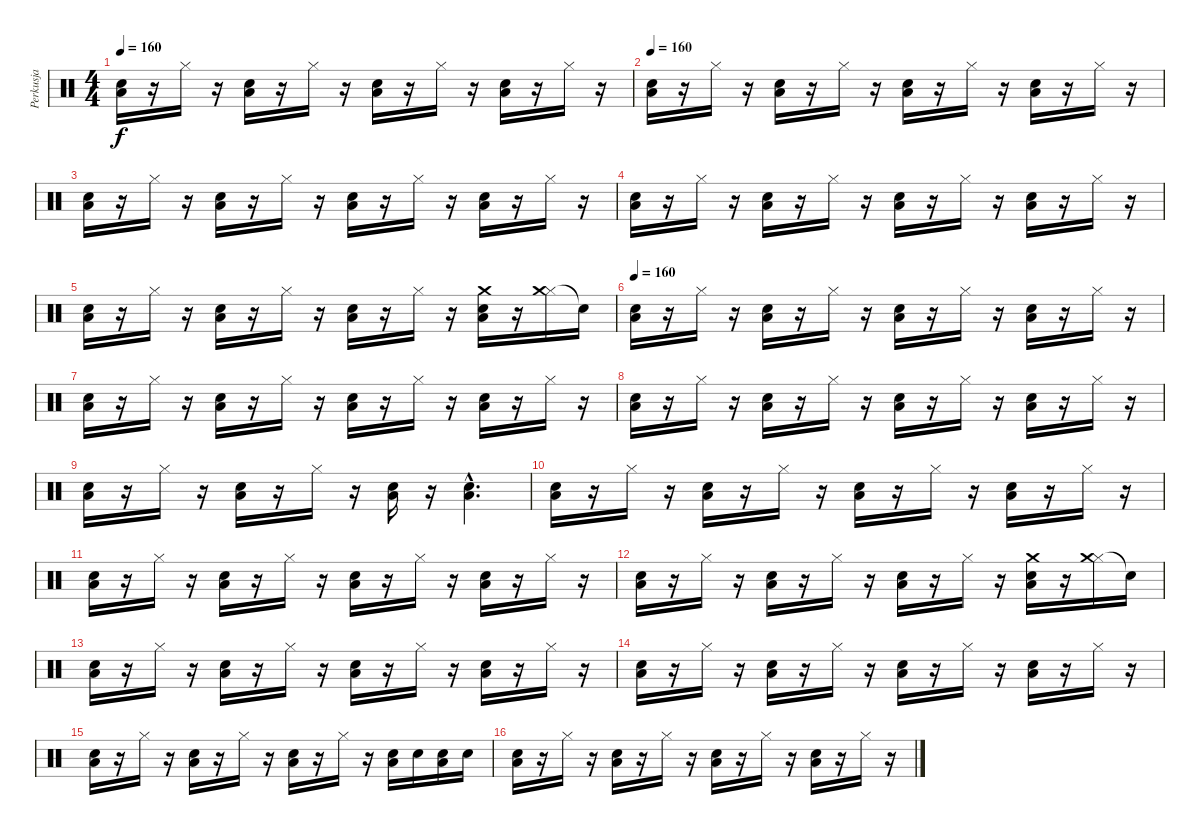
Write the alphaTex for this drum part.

\track ("Perkusja" "Perkusja") {instrument percussion}
\staff {score}
\articulation defaults
\ts (4 4)
\tempo 160
\clef neutral
\ks c
("Snare (hit) 2" "Low Tom (hit)").16{dy f} r.16 "Hi-Hat (closed)".16 r.16 ("Snare (hit) 2" "Low Tom (hit)").16 r.16 "Hi-Hat (closed)".16 r.16 ("Snare (hit) 2" "Low Tom (hit)").16 r.16 "Hi-Hat (closed)".16 r.16 ("Snare (hit) 2" "Low Tom (hit)").16 r.16 "Hi-Hat (closed)".16 r.16 |
\tempo 160
("Snare (hit) 2" "Low Tom (hit)").16 r.16 "Hi-Hat (closed)".16 r.16 ("Snare (hit) 2" "Low Tom (hit)").16 r.16 "Hi-Hat (closed)".16 r.16 ("Snare (hit) 2" "Low Tom (hit)").16 r.16 "Hi-Hat (closed)".16 r.16 ("Snare (hit) 2" "Low Tom (hit)").16 r.16 "Hi-Hat (closed)".16 r.16 |
("Snare (hit) 2" "Low Tom (hit)").16 r.16 "Hi-Hat (closed)".16 r.16 ("Snare (hit) 2" "Low Tom (hit)").16 r.16 "Hi-Hat (closed)".16 r.16 ("Snare (hit) 2" "Low Tom (hit)").16 r.16 "Hi-Hat (closed)".16 r.16 ("Snare (hit) 2" "Low Tom (hit)").16 r.16 "Hi-Hat (closed)".16 r.16 |
("Snare (hit) 2" "Low Tom (hit)").16 r.16 "Hi-Hat (closed)".16 r.16 ("Snare (hit) 2" "Low Tom (hit)").16 r.16 "Hi-Hat (closed)".16 r.16 ("Snare (hit) 2" "Low Tom (hit)").16 r.16 "Hi-Hat (closed)".16 r.16 ("Snare (hit) 2" "Low Tom (hit)").16 r.16 "Hi-Hat (closed)".16 r.16 |
("Snare (hit) 2" "Low Tom (hit)").16 r.16 "Hi-Hat (closed)".16 r.16 ("Snare (hit) 2" "Low Tom (hit)").16 r.16 "Hi-Hat (closed)".16 r.16 ("Snare (hit) 2" "Low Tom (hit)").16 r.16 "Hi-Hat (closed)".16 r.16 ("Snare (hit) 2" "Low Tom (hit)" "Crash medium (hit)").16 r.16 ("Hi-Hat (closed)" "Crash medium (hit)").16 "Snare (hit)"{t}.16 |
\tempo 160
("Snare (hit) 2" "Low Tom (hit)").16 r.16 "Hi-Hat (closed)".16 r.16 ("Snare (hit) 2" "Low Tom (hit)").16 r.16 "Hi-Hat (closed)".16 r.16 ("Snare (hit) 2" "Low Tom (hit)").16 r.16 "Hi-Hat (closed)".16 r.16 ("Snare (hit) 2" "Low Tom (hit)").16 r.16 "Hi-Hat (closed)".16 r.16 |
("Snare (hit) 2" "Low Tom (hit)").16 r.16 "Hi-Hat (closed)".16 r.16 ("Snare (hit) 2" "Low Tom (hit)").16 r.16 "Hi-Hat (closed)".16 r.16 ("Snare (hit) 2" "Low Tom (hit)").16 r.16 "Hi-Hat (closed)".16 r.16 ("Snare (hit) 2" "Low Tom (hit)").16 r.16 "Hi-Hat (closed)".16 r.16 |
("Snare (hit) 2" "Low Tom (hit)").16 r.16 "Hi-Hat (closed)".16 r.16 ("Snare (hit) 2" "Low Tom (hit)").16 r.16 "Hi-Hat (closed)".16 r.16 ("Snare (hit) 2" "Low Tom (hit)").16 r.16 "Hi-Hat (closed)".16 r.16 ("Snare (hit) 2" "Low Tom (hit)").16 r.16 "Hi-Hat (closed)".16 r.16 |
("Snare (hit) 2" "Low Tom (hit)").16 r.16 "Hi-Hat (closed)".16 r.16 ("Snare (hit) 2" "Low Tom (hit)").16 r.16 "Hi-Hat (closed)".16 r.16 ("Snare (hit) 2" "Low Tom (hit)").16 r.16 ("Snare (hit) 2"{hac} "Low Tom (hit)"{hac}).4{d} |
("Snare (hit) 2" "Low Tom (hit)").16 r.16 "Hi-Hat (closed)".16 r.16 ("Snare (hit) 2" "Low Tom (hit)").16 r.16 "Hi-Hat (closed)".16 r.16 ("Snare (hit) 2" "Low Tom (hit)").16 r.16 "Hi-Hat (closed)".16 r.16 ("Snare (hit) 2" "Low Tom (hit)").16 r.16 "Hi-Hat (closed)".16 r.16 |
("Snare (hit) 2" "Low Tom (hit)").16 r.16 "Hi-Hat (closed)".16 r.16 ("Snare (hit) 2" "Low Tom (hit)").16 r.16 "Hi-Hat (closed)".16 r.16 ("Snare (hit) 2" "Low Tom (hit)").16 r.16 "Hi-Hat (closed)".16 r.16 ("Snare (hit) 2" "Low Tom (hit)").16 r.16 "Hi-Hat (closed)".16 r.16 |
("Snare (hit) 2" "Low Tom (hit)").16 r.16 "Hi-Hat (closed)".16 r.16 ("Snare (hit) 2" "Low Tom (hit)").16 r.16 "Hi-Hat (closed)".16 r.16 ("Snare (hit) 2" "Low Tom (hit)").16 r.16 "Hi-Hat (closed)".16 r.16 ("Snare (hit) 2" "Low Tom (hit)" "Crash medium (hit)").16 r.16 ("Hi-Hat (closed)" "Crash medium (hit)").16 "Snare (hit)"{t}.16 |
("Snare (hit) 2" "Low Tom (hit)").16 r.16 "Hi-Hat (closed)".16 r.16 ("Snare (hit) 2" "Low Tom (hit)").16 r.16 "Hi-Hat (closed)".16 r.16 ("Snare (hit) 2" "Low Tom (hit)").16 r.16 "Hi-Hat (closed)".16 r.16 ("Snare (hit) 2" "Low Tom (hit)").16 r.16 "Hi-Hat (closed)".16 r.16 |
("Snare (hit) 2" "Low Tom (hit)").16 r.16 "Hi-Hat (closed)".16 r.16 ("Snare (hit) 2" "Low Tom (hit)").16 r.16 "Hi-Hat (closed)".16 r.16 ("Snare (hit) 2" "Low Tom (hit)").16 r.16 "Hi-Hat (closed)".16 r.16 ("Snare (hit) 2" "Low Tom (hit)").16 r.16 "Hi-Hat (closed)".16 r.16 |
("Snare (hit) 2" "Low Tom (hit)").16 r.16 "Hi-Hat (closed)".16 r.16 ("Snare (hit) 2" "Low Tom (hit)").16 r.16 "Hi-Hat (closed)".16 r.16 ("Snare (hit) 2" "Low Tom (hit)").16 r.16 "Hi-Hat (closed)".16 r.16 ("Snare (hit) 2" "Low Tom (hit)").16 "Snare (hit) 2".16 ("Snare (hit) 2" "Low Tom (hit)").16 "Snare (hit) 2".16 |
("Snare (hit) 2" "Low Tom (hit)").16 r.16 "Hi-Hat (closed)".16 r.16 ("Snare (hit) 2" "Low Tom (hit)").16 r.16 "Hi-Hat (closed)".16 r.16 ("Snare (hit) 2" "Low Tom (hit)").16 r.16 "Hi-Hat (closed)".16 r.16 ("Snare (hit) 2" "Low Tom (hit)").16 r.16 "Hi-Hat (closed)".16 r.16
